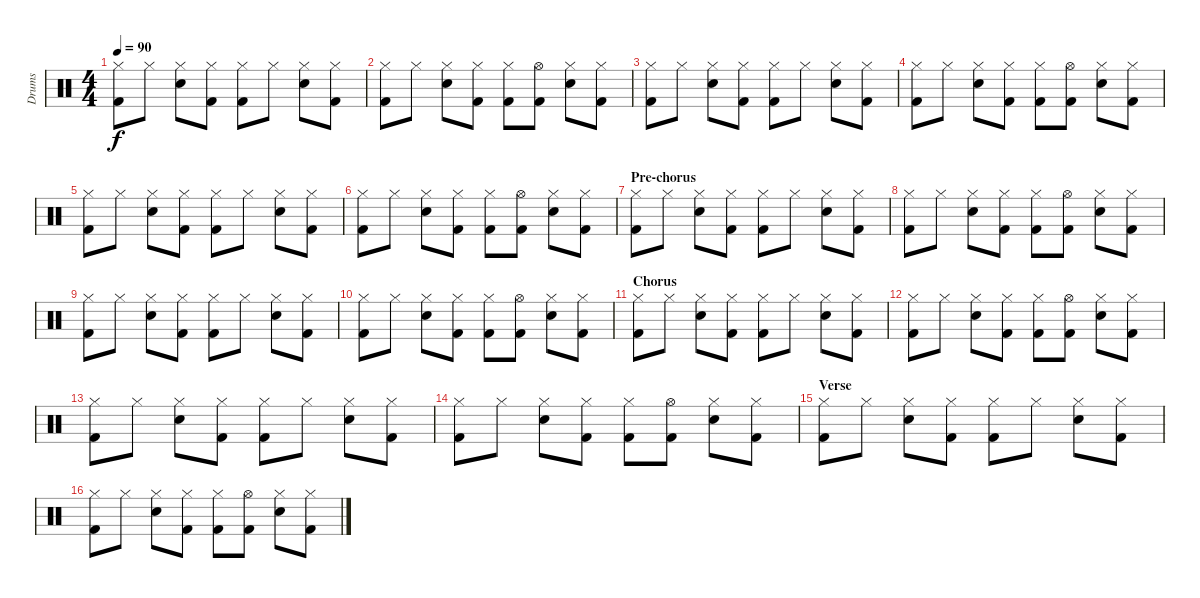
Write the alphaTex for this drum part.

\track ("Drums" "Drums") {instrument percussion}
\staff {score}
\articulation defaults
\ts (4 4)
\tempo 90
\clef neutral
\ks c
("Hi-Hat (closed)" "Kick (hit) 2").8{dy f} "Hi-Hat (closed)".8 ("Hi-Hat (closed)" "Electric Snare (hit)").8 ("Hi-Hat (closed)" "Kick (hit) 2").8 ("Hi-Hat (closed)" "Kick (hit) 2").8 "Hi-Hat (closed)".8 ("Hi-Hat (closed)" "Electric Snare (hit)").8 ("Hi-Hat (closed)" "Kick (hit) 2").8 |
("Hi-Hat (closed)" "Kick (hit) 2").8 "Hi-Hat (closed)".8 ("Hi-Hat (closed)" "Electric Snare (hit)").8 ("Hi-Hat (closed)" "Kick (hit) 2").8 ("Hi-Hat (closed)" "Kick (hit) 2").8 ("Hi-Hat (open)" "Kick (hit) 2").8 ("Hi-Hat (closed)" "Electric Snare (hit)").8 ("Hi-Hat (closed)" "Kick (hit) 2").8 |
("Hi-Hat (closed)" "Kick (hit) 2").8 "Hi-Hat (closed)".8 ("Hi-Hat (closed)" "Electric Snare (hit)").8 ("Hi-Hat (closed)" "Kick (hit) 2").8 ("Hi-Hat (closed)" "Kick (hit) 2").8 "Hi-Hat (closed)".8 ("Hi-Hat (closed)" "Electric Snare (hit)").8 ("Hi-Hat (closed)" "Kick (hit) 2").8 |
("Hi-Hat (closed)" "Kick (hit) 2").8 "Hi-Hat (closed)".8 ("Hi-Hat (closed)" "Electric Snare (hit)").8 ("Hi-Hat (closed)" "Kick (hit) 2").8 ("Hi-Hat (closed)" "Kick (hit) 2").8 ("Hi-Hat (open)" "Kick (hit) 2").8 ("Hi-Hat (closed)" "Electric Snare (hit)").8 ("Hi-Hat (closed)" "Kick (hit) 2").8 |
("Hi-Hat (closed)" "Kick (hit) 2").8 "Hi-Hat (closed)".8 ("Hi-Hat (closed)" "Electric Snare (hit)").8 ("Hi-Hat (closed)" "Kick (hit) 2").8 ("Hi-Hat (closed)" "Kick (hit) 2").8 "Hi-Hat (closed)".8 ("Hi-Hat (closed)" "Electric Snare (hit)").8 ("Hi-Hat (closed)" "Kick (hit) 2").8 |
("Hi-Hat (closed)" "Kick (hit) 2").8 "Hi-Hat (closed)".8 ("Hi-Hat (closed)" "Electric Snare (hit)").8 ("Hi-Hat (closed)" "Kick (hit) 2").8 ("Hi-Hat (closed)" "Kick (hit) 2").8 ("Hi-Hat (open)" "Kick (hit) 2").8 ("Hi-Hat (closed)" "Electric Snare (hit)").8 ("Hi-Hat (closed)" "Kick (hit) 2").8 |
\section ("" "Pre-chorus")
("Hi-Hat (closed)" "Kick (hit) 2").8 "Hi-Hat (closed)".8 ("Hi-Hat (closed)" "Electric Snare (hit)").8 ("Hi-Hat (closed)" "Kick (hit) 2").8 ("Hi-Hat (closed)" "Kick (hit) 2").8 "Hi-Hat (closed)".8 ("Hi-Hat (closed)" "Electric Snare (hit)").8 ("Hi-Hat (closed)" "Kick (hit) 2").8 |
("Hi-Hat (closed)" "Kick (hit) 2").8 "Hi-Hat (closed)".8 ("Hi-Hat (closed)" "Electric Snare (hit)").8 ("Hi-Hat (closed)" "Kick (hit) 2").8 ("Hi-Hat (closed)" "Kick (hit) 2").8 ("Hi-Hat (open)" "Kick (hit) 2").8 ("Hi-Hat (closed)" "Electric Snare (hit)").8 ("Hi-Hat (closed)" "Kick (hit) 2").8 |
("Hi-Hat (closed)" "Kick (hit) 2").8 "Hi-Hat (closed)".8 ("Hi-Hat (closed)" "Electric Snare (hit)").8 ("Hi-Hat (closed)" "Kick (hit) 2").8 ("Hi-Hat (closed)" "Kick (hit) 2").8 "Hi-Hat (closed)".8 ("Hi-Hat (closed)" "Electric Snare (hit)").8 ("Hi-Hat (closed)" "Kick (hit) 2").8 |
("Hi-Hat (closed)" "Kick (hit) 2").8 "Hi-Hat (closed)".8 ("Hi-Hat (closed)" "Electric Snare (hit)").8 ("Hi-Hat (closed)" "Kick (hit) 2").8 ("Hi-Hat (closed)" "Kick (hit) 2").8 ("Hi-Hat (open)" "Kick (hit) 2").8 ("Hi-Hat (closed)" "Electric Snare (hit)").8 ("Hi-Hat (closed)" "Kick (hit) 2").8 |
\section ("" "Chorus")
("Hi-Hat (closed)" "Kick (hit) 2").8 "Hi-Hat (closed)".8 ("Hi-Hat (closed)" "Electric Snare (hit)").8 ("Hi-Hat (closed)" "Kick (hit) 2").8 ("Hi-Hat (closed)" "Kick (hit) 2").8 "Hi-Hat (closed)".8 ("Hi-Hat (closed)" "Electric Snare (hit)").8 ("Hi-Hat (closed)" "Kick (hit) 2").8 |
("Hi-Hat (closed)" "Kick (hit) 2").8 "Hi-Hat (closed)".8 ("Hi-Hat (closed)" "Electric Snare (hit)").8 ("Hi-Hat (closed)" "Kick (hit) 2").8 ("Hi-Hat (closed)" "Kick (hit) 2").8 ("Hi-Hat (open)" "Kick (hit) 2").8 ("Hi-Hat (closed)" "Electric Snare (hit)").8 ("Hi-Hat (closed)" "Kick (hit) 2").8 |
("Hi-Hat (closed)" "Kick (hit) 2").8 "Hi-Hat (closed)".8 ("Hi-Hat (closed)" "Electric Snare (hit)").8 ("Hi-Hat (closed)" "Kick (hit) 2").8 ("Hi-Hat (closed)" "Kick (hit) 2").8 "Hi-Hat (closed)".8 ("Hi-Hat (closed)" "Electric Snare (hit)").8 ("Hi-Hat (closed)" "Kick (hit) 2").8 |
("Hi-Hat (closed)" "Kick (hit) 2").8 "Hi-Hat (closed)".8 ("Hi-Hat (closed)" "Electric Snare (hit)").8 ("Hi-Hat (closed)" "Kick (hit) 2").8 ("Hi-Hat (closed)" "Kick (hit) 2").8 ("Hi-Hat (open)" "Kick (hit) 2").8 ("Hi-Hat (closed)" "Electric Snare (hit)").8 ("Hi-Hat (closed)" "Kick (hit) 2").8 |
\section ("" "Verse")
("Hi-Hat (closed)" "Kick (hit) 2").8 "Hi-Hat (closed)".8 ("Hi-Hat (closed)" "Electric Snare (hit)").8 ("Hi-Hat (closed)" "Kick (hit) 2").8 ("Hi-Hat (closed)" "Kick (hit) 2").8 "Hi-Hat (closed)".8 ("Hi-Hat (closed)" "Electric Snare (hit)").8 ("Hi-Hat (closed)" "Kick (hit) 2").8 |
("Hi-Hat (closed)" "Kick (hit) 2").8 "Hi-Hat (closed)".8 ("Hi-Hat (closed)" "Electric Snare (hit)").8 ("Hi-Hat (closed)" "Kick (hit) 2").8 ("Hi-Hat (closed)" "Kick (hit) 2").8 ("Hi-Hat (open)" "Kick (hit) 2").8 ("Hi-Hat (closed)" "Electric Snare (hit)").8 ("Hi-Hat (closed)" "Kick (hit) 2").8
